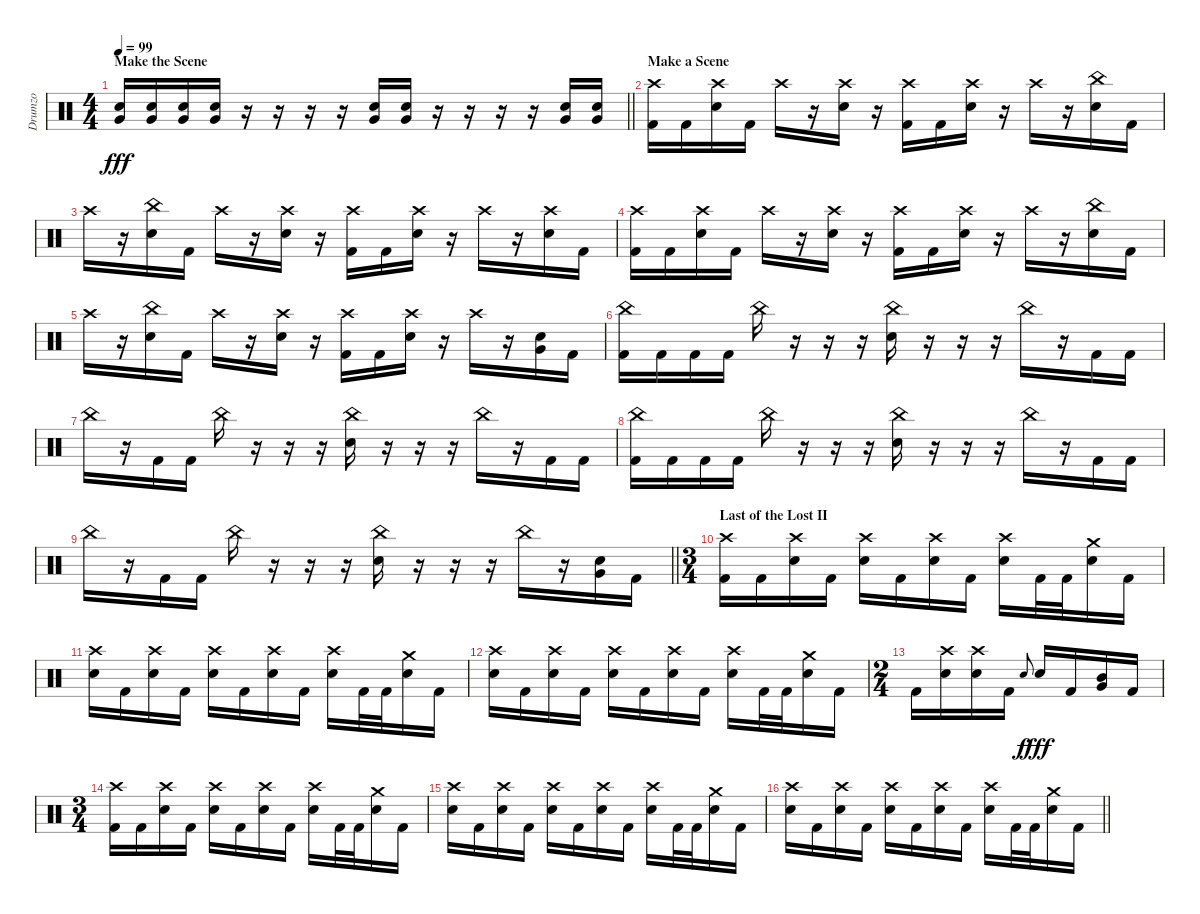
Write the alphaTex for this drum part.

\track ("Drumzo" "Drumzo") {instrument percussion}
\staff {score}
\articulation defaults
\ts (4 4)
\section ("" "Make the Scene")
\tempo 99
\clef neutral
\barLineRight lightlight
\ks c
("Very Low Tom (hit)" "Snare (hit) 2").16{dy fff} ("Very Low Tom (hit)" "Snare (hit) 2").16 ("Very Low Tom (hit)" "Snare (hit) 2").16 ("Very Low Tom (hit)" "Snare (hit) 2").16 r.16 r.16 r.16 r.16 ("Very Low Tom (hit)" "Snare (hit) 2").16 ("Very Low Tom (hit)" "Snare (hit) 2").16 r.16 r.16 r.16 r.16 ("Very Low Tom (hit)" "Snare (hit) 2").16 ("Very Low Tom (hit)" "Snare (hit) 2").16 |
\section ("" "Make a Scene")
("Crash high (hit)" "Kick (hit) 2").16 "Kick (hit) 2".16 ("Crash high (hit)" "Snare (hit) 2").16 "Kick (hit) 2".16 "Crash high (hit)".16 r.16 ("Crash high (hit)" "Snare (hit) 2").16 r.16 ("Crash high (hit)" "Kick (hit) 2").16 "Kick (hit) 2".16 ("Crash high (hit)" "Snare (hit) 2").16 r.16 "Crash high (hit)".16 r.16 ("China (hit)" "Snare (hit) 2").16 "Kick (hit) 2".16 |
"Crash high (hit)".16 r.16 ("China (hit)" "Snare (hit) 2").16 "Kick (hit) 2".16 "Crash high (hit)".16 r.16 ("Crash high (hit)" "Snare (hit) 2").16 r.16 ("Crash high (hit)" "Kick (hit) 2").16 "Kick (hit) 2".16 ("Crash high (hit)" "Snare (hit) 2").16 r.16 "Crash high (hit)".16 r.16 ("Crash high (hit)" "Snare (hit) 2").16 "Kick (hit) 2".16 |
("Crash high (hit)" "Kick (hit) 2").16 "Kick (hit) 2".16 ("Crash high (hit)" "Snare (hit) 2").16 "Kick (hit) 2".16 "Crash high (hit)".16 r.16 ("Crash high (hit)" "Snare (hit) 2").16 r.16 ("Crash high (hit)" "Kick (hit) 2").16 "Kick (hit) 2".16 ("Crash high (hit)" "Snare (hit) 2").16 r.16 "Crash high (hit)".16 r.16 ("China (hit)" "Snare (hit) 2").16 "Kick (hit) 2".16 |
"Crash high (hit)".16 r.16 ("China (hit)" "Snare (hit) 2").16 "Kick (hit) 2".16 "Crash high (hit)".16 r.16 ("Crash high (hit)" "Snare (hit) 2").16 r.16 ("Crash high (hit)" "Kick (hit) 2").16 "Kick (hit) 2".16 ("Crash high (hit)" "Snare (hit) 2").16 r.16 "Crash high (hit)".16 r.16 ("Very Low Tom (hit)" "Snare (hit) 2").16 "Kick (hit) 2".16 |
("China (hit)" "Kick (hit) 2").16 "Kick (hit) 2".16 "Kick (hit) 2".16 "Kick (hit) 2".16 "China (hit)".16 r.16 r.16 r.16 ("China (hit)" "Snare (hit) 2").16 r.16 r.16 r.16 "China (hit)".16 r.16 "Kick (hit) 2".16 "Kick (hit) 2".16 |
"China (hit)".16 r.16 "Kick (hit) 2".16 "Kick (hit) 2".16 "China (hit)".16 r.16 r.16 r.16 ("China (hit)" "Snare (hit) 2").16 r.16 r.16 r.16 "China (hit)".16 r.16 "Kick (hit) 2".16 "Kick (hit) 2".16 |
("China (hit)" "Kick (hit) 2").16 "Kick (hit) 2".16 "Kick (hit) 2".16 "Kick (hit) 2".16 "China (hit)".16 r.16 r.16 r.16 ("China (hit)" "Snare (hit) 2").16 r.16 r.16 r.16 "China (hit)".16 r.16 "Kick (hit) 2".16 "Kick (hit) 2".16 |
\barLineRight lightlight "China (hit)".16
r.16 "Kick (hit) 2".16 "Kick (hit) 2".16 "China (hit)".16 r.16 r.16 r.16 ("China (hit)" "Snare (hit) 2").16 r.16 r.16 r.16 "China (hit)".16 r.16 ("Very Low Tom (hit)" "Snare (hit) 2").16 "Kick (hit) 2".16 |
\ts (3 4)
\section ("" "Last of the Lost II")
("Crash high (hit)" "Kick (hit) 2").16 "Kick (hit) 2".16 ("Crash high (hit)" "Snare (hit) 2").16 "Kick (hit) 2".16 ("Crash high (hit)" "Snare (hit) 2").16 "Kick (hit) 2".16 ("Crash high (hit)" "Snare (hit) 2").16 "Kick (hit) 2".16 ("Crash high (hit)" "Snare (hit) 2").16 "Kick (hit) 2".32 "Kick (hit) 2".32 ("Crash medium (hit)" "Snare (hit) 2").16 "Kick (hit) 2".16 |
("Crash high (hit)" "Snare (hit) 2").16 "Kick (hit) 2".16 ("Crash high (hit)" "Snare (hit) 2").16 "Kick (hit) 2".16 ("Crash high (hit)" "Snare (hit) 2").16 "Kick (hit) 2".16 ("Crash high (hit)" "Snare (hit) 2").16 "Kick (hit) 2".16 ("Crash high (hit)" "Snare (hit) 2").16 "Kick (hit) 2".32 "Kick (hit) 2".32 ("Crash medium (hit)" "Snare (hit) 2").16 "Kick (hit) 2".16 |
("Crash high (hit)" "Snare (hit) 2").16 "Kick (hit) 2".16 ("Crash high (hit)" "Snare (hit) 2").16 "Kick (hit) 2".16 ("Crash high (hit)" "Snare (hit) 2").16 "Kick (hit) 2".16 ("Crash high (hit)" "Snare (hit) 2").16 "Kick (hit) 2".16 ("Crash high (hit)" "Snare (hit) 2").16 "Kick (hit) 2".32 "Kick (hit) 2".32 ("Crash medium (hit)" "Snare (hit) 2").16 "Kick (hit) 2".16 |
\ts (2 4)
"Kick (hit) 2".16 ("Crash high (hit)" "Snare (hit) 2").16 ("Crash high (hit)" "Snare (hit) 2").16 "Kick (hit) 2".16 "Snare (hit) 2".8{gr onbeat dy f} "Snare (hit) 2".16{dy fff} "Kick (hit) 2".16 ("Mid Tom (hit)" "Very Low Tom (hit)").16 "Kick (hit) 2".16 |
\ts (3 4)
("Crash high (hit)" "Kick (hit) 2").16 "Kick (hit) 2".16 ("Crash high (hit)" "Snare (hit) 2").16 "Kick (hit) 2".16 ("Crash high (hit)" "Snare (hit) 2").16 "Kick (hit) 2".16 ("Crash high (hit)" "Snare (hit) 2").16 "Kick (hit) 2".16 ("Crash high (hit)" "Snare (hit) 2").16 "Kick (hit) 2".32 "Kick (hit) 2".32 ("Crash medium (hit)" "Snare (hit) 2").16 "Kick (hit) 2".16 |
("Crash high (hit)" "Snare (hit) 2").16 "Kick (hit) 2".16 ("Crash high (hit)" "Snare (hit) 2").16 "Kick (hit) 2".16 ("Crash high (hit)" "Snare (hit) 2").16 "Kick (hit) 2".16 ("Crash high (hit)" "Snare (hit) 2").16 "Kick (hit) 2".16 ("Crash high (hit)" "Snare (hit) 2").16 "Kick (hit) 2".32 "Kick (hit) 2".32 ("Crash medium (hit)" "Snare (hit) 2").16 "Kick (hit) 2".16 |
\barLineRight lightlight
("Crash high (hit)" "Snare (hit) 2").16 "Kick (hit) 2".16 ("Crash high (hit)" "Snare (hit) 2").16 "Kick (hit) 2".16 ("Crash high (hit)" "Snare (hit) 2").16 "Kick (hit) 2".16 ("Crash high (hit)" "Snare (hit) 2").16 "Kick (hit) 2".16 ("Crash high (hit)" "Snare (hit) 2").16 "Kick (hit) 2".32 "Kick (hit) 2".32 ("Crash medium (hit)" "Snare (hit) 2").16 "Kick (hit) 2".16
